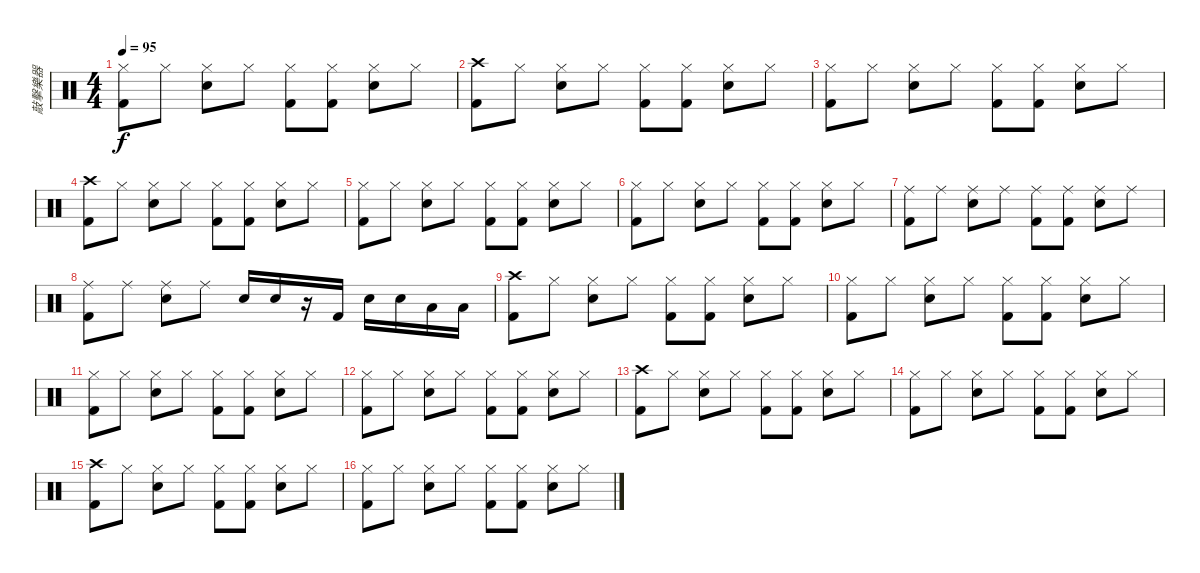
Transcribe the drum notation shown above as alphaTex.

\track ("敲擊樂器" "敲擊樂器") {instrument percussion}
\staff {score}
\articulation defaults
\ts (4 4)
\tempo 95
\clef neutral
\ks c
("Hi-Hat (closed)" "Kick (hit) 2").8{dy f} "Hi-Hat (closed)".8 ("Hi-Hat (closed)" "Snare (hit) 2").8 "Hi-Hat (closed)".8 ("Hi-Hat (closed)" "Kick (hit) 2").8 ("Hi-Hat (closed)" "Kick (hit) 2").8 ("Hi-Hat (closed)" "Snare (hit) 2").8 "Hi-Hat (closed)".8 |
("Crash high (hit)" "Kick (hit) 2").8 "Hi-Hat (closed)".8 ("Hi-Hat (closed)" "Snare (hit) 2").8 "Hi-Hat (closed)".8 ("Hi-Hat (closed)" "Kick (hit) 2").8 ("Hi-Hat (closed)" "Kick (hit) 2").8 ("Hi-Hat (closed)" "Snare (hit) 2").8 "Hi-Hat (closed)".8 |
("Hi-Hat (closed)" "Kick (hit) 2").8 "Hi-Hat (closed)".8 ("Hi-Hat (closed)" "Snare (hit) 2").8 "Hi-Hat (closed)".8 ("Hi-Hat (closed)" "Kick (hit) 2").8 ("Hi-Hat (closed)" "Kick (hit) 2").8 ("Hi-Hat (closed)" "Snare (hit) 2").8 "Hi-Hat (closed)".8 |
("Crash high (hit)" "Kick (hit) 2").8 "Hi-Hat (closed)".8 ("Hi-Hat (closed)" "Snare (hit) 2").8 "Hi-Hat (closed)".8 ("Hi-Hat (closed)" "Kick (hit) 2").8 ("Hi-Hat (closed)" "Kick (hit) 2").8 ("Hi-Hat (closed)" "Snare (hit) 2").8 "Hi-Hat (closed)".8 |
("Hi-Hat (closed)" "Kick (hit) 2").8 "Hi-Hat (closed)".8 ("Hi-Hat (closed)" "Snare (hit) 2").8 "Hi-Hat (closed)".8 ("Hi-Hat (closed)" "Kick (hit) 2").8 ("Hi-Hat (closed)" "Kick (hit) 2").8 ("Hi-Hat (closed)" "Snare (hit) 2").8 "Hi-Hat (closed)".8 |
("Hi-Hat (closed)" "Kick (hit) 2").8 "Hi-Hat (closed)".8 ("Hi-Hat (closed)" "Snare (hit) 2").8 "Hi-Hat (closed)".8 ("Hi-Hat (closed)" "Kick (hit) 2").8 ("Hi-Hat (closed)" "Kick (hit) 2").8 ("Hi-Hat (closed)" "Snare (hit) 2").8 "Hi-Hat (closed)".8 |
("Ride (middle)" "Kick (hit) 2").8 "Ride (middle)".8 ("Ride (middle)" "Snare (hit) 2").8 "Ride (middle)".8 ("Ride (middle)" "Kick (hit) 2").8 ("Ride (middle)" "Kick (hit) 2").8 ("Ride (middle)" "Snare (hit) 2").8 "Ride (middle)".8 |
("Ride (middle)" "Kick (hit) 2").8 "Ride (middle)".8 ("Ride (middle)" "Snare (hit) 2").8 "Ride (middle)".8 "Snare (hit) 2".16 "Snare (hit) 2".16 r.16 "Kick (hit) 2".16 "Snare (hit) 2".16 "Snare (hit) 2".16 "Low Tom (hit)".16 "Low Tom (hit)".16 |
("Crash high (hit)" "Kick (hit) 2").8 "Hi-Hat (closed)".8 ("Hi-Hat (closed)" "Snare (hit) 2").8 "Hi-Hat (closed)".8 ("Hi-Hat (closed)" "Kick (hit) 2").8 ("Hi-Hat (closed)" "Kick (hit) 2").8 ("Hi-Hat (closed)" "Snare (hit) 2").8 "Hi-Hat (closed)".8 |
("Hi-Hat (closed)" "Kick (hit) 2").8 "Hi-Hat (closed)".8 ("Hi-Hat (closed)" "Snare (hit) 2").8 "Hi-Hat (closed)".8 ("Hi-Hat (closed)" "Kick (hit) 2").8 ("Hi-Hat (closed)" "Kick (hit) 2").8 ("Hi-Hat (closed)" "Snare (hit) 2").8 "Hi-Hat (closed)".8 |
("Hi-Hat (closed)" "Kick (hit) 2").8 "Hi-Hat (closed)".8 ("Hi-Hat (closed)" "Snare (hit) 2").8 "Hi-Hat (closed)".8 ("Hi-Hat (closed)" "Kick (hit) 2").8 ("Hi-Hat (closed)" "Kick (hit) 2").8 ("Hi-Hat (closed)" "Snare (hit) 2").8 "Hi-Hat (closed)".8 |
("Hi-Hat (closed)" "Kick (hit) 2").8 "Hi-Hat (closed)".8 ("Hi-Hat (closed)" "Snare (hit) 2").8 "Hi-Hat (closed)".8 ("Hi-Hat (closed)" "Kick (hit) 2").8 ("Hi-Hat (closed)" "Kick (hit) 2").8 ("Hi-Hat (closed)" "Snare (hit) 2").8 "Hi-Hat (closed)".8 |
("Crash high (hit)" "Kick (hit) 2").8 "Hi-Hat (closed)".8 ("Hi-Hat (closed)" "Snare (hit) 2").8 "Hi-Hat (closed)".8 ("Hi-Hat (closed)" "Kick (hit) 2").8 ("Hi-Hat (closed)" "Kick (hit) 2").8 ("Hi-Hat (closed)" "Snare (hit) 2").8 "Hi-Hat (closed)".8 |
("Hi-Hat (closed)" "Kick (hit) 2").8 "Hi-Hat (closed)".8 ("Hi-Hat (closed)" "Snare (hit) 2").8 "Hi-Hat (closed)".8 ("Hi-Hat (closed)" "Kick (hit) 2").8 ("Hi-Hat (closed)" "Kick (hit) 2").8 ("Hi-Hat (closed)" "Snare (hit) 2").8 "Hi-Hat (closed)".8 |
("Crash high (hit)" "Kick (hit) 2").8 "Hi-Hat (closed)".8 ("Hi-Hat (closed)" "Snare (hit) 2").8 "Hi-Hat (closed)".8 ("Hi-Hat (closed)" "Kick (hit) 2").8 ("Hi-Hat (closed)" "Kick (hit) 2").8 ("Hi-Hat (closed)" "Snare (hit) 2").8 "Hi-Hat (closed)".8 |
("Hi-Hat (closed)" "Kick (hit) 2").8 "Hi-Hat (closed)".8 ("Hi-Hat (closed)" "Snare (hit) 2").8 "Hi-Hat (closed)".8 ("Hi-Hat (closed)" "Kick (hit) 2").8 ("Hi-Hat (closed)" "Kick (hit) 2").8 ("Hi-Hat (closed)" "Snare (hit) 2").8 "Hi-Hat (closed)".8
